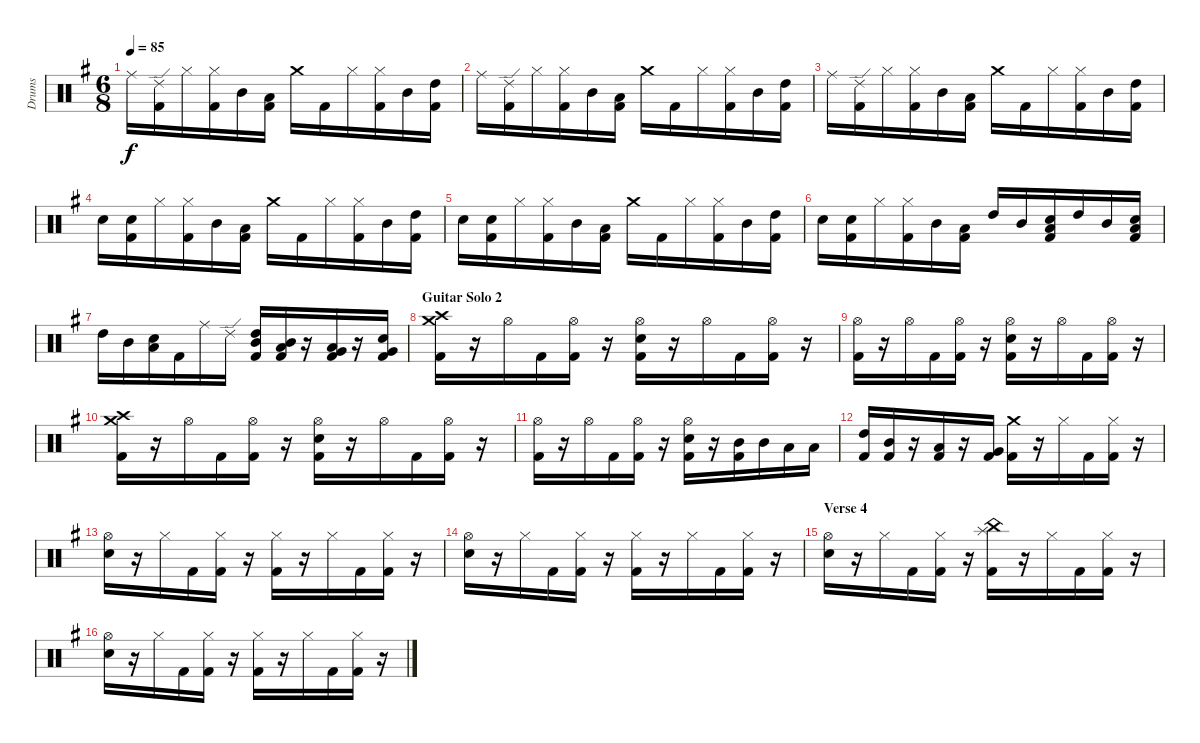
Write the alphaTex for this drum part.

\track ("Drums" "Drums") {instrument percussion}
\staff {score}
\articulation defaults
\ts (6 8)
\tempo 85
\clef neutral
\ks eminor "Ride (middle)".16{dy f}
("Ride (edge) 2" "Kick (hit) 2").16 "Hi-Hat (closed)".16 ("Hi-Hat (closed)" "Kick (hit) 2").16 "Mid Tom (hit)".16 ("Low Tom (hit)" "Kick (hit) 2").16 "Crash medium (hit)".16 "Kick (hit) 2".16 "Hi-Hat (closed)".16 ("Hi-Hat (closed)" "Kick (hit) 2").16 "Mid Tom (hit)".16 ("High Tom (hit)" "Kick (hit) 2").16 |
"Ride (middle)".16 ("Ride (edge) 2" "Kick (hit) 2").16 "Hi-Hat (closed)".16 ("Hi-Hat (closed)" "Kick (hit) 2").16 "Mid Tom (hit)".16 ("Low Tom (hit)" "Kick (hit) 2").16 "Crash medium (hit)".16 "Kick (hit) 2".16 "Hi-Hat (closed)".16 ("Hi-Hat (closed)" "Kick (hit) 2").16 "Mid Tom (hit)".16 ("High Tom (hit)" "Kick (hit) 2").16 |
"Ride (middle)".16 ("Ride (edge) 2" "Kick (hit) 2").16 "Hi-Hat (closed)".16 ("Hi-Hat (closed)" "Kick (hit) 2").16 "Mid Tom (hit)".16 ("Low Tom (hit)" "Kick (hit) 2").16 "Crash medium (hit)".16 "Kick (hit) 2".16 "Hi-Hat (closed)".16 ("Hi-Hat (closed)" "Kick (hit) 2").16 "Mid Tom (hit)".16 ("High Tom (hit)" "Kick (hit) 2").16 |
"Electric Snare (hit)".16 ("Electric Snare (hit)" "Kick (hit) 2").16 "Hi-Hat (closed)".16 ("Hi-Hat (closed)" "Kick (hit) 2").16 "Mid Tom (hit)".16 ("Low Tom (hit)" "Kick (hit) 2").16 "Crash medium (hit)".16 "Kick (hit) 2".16 "Hi-Hat (closed)".16 ("Hi-Hat (closed)" "Kick (hit) 2").16 "Mid Tom (hit)".16 ("High Tom (hit)" "Kick (hit) 2").16 |
"Electric Snare (hit)".16 ("Electric Snare (hit)" "Kick (hit) 2").16 "Hi-Hat (closed)".16 ("Hi-Hat (closed)" "Kick (hit) 2").16 "Mid Tom (hit)".16 ("Low Tom (hit)" "Kick (hit) 2").16 "Crash medium (hit)".16 "Kick (hit) 2".16 "Hi-Hat (closed)".16 ("Hi-Hat (closed)" "Kick (hit) 2").16 "Mid Tom (hit)".16 ("High Tom (hit)" "Kick (hit) 2").16 |
"Electric Snare (hit)".16 ("Electric Snare (hit)" "Kick (hit) 2").16 "Hi-Hat (closed)".16 ("Hi-Hat (closed)" "Kick (hit) 2").16 "Mid Tom (hit)".16 ("Low Tom (hit)" "Kick (hit) 2").16 "High Tom (hit)".16 "Mid Tom (hit)".16 ("Electric Snare (hit)" "Low Tom (hit)" "Kick (hit) 2").16 "High Tom (hit)".16 "Mid Tom (hit)".16 ("Electric Snare (hit)" "Low Tom (hit)" "Kick (hit) 2").16 |
"High Tom (hit)".16 "Mid Tom (hit)".16 ("Electric Snare (hit)" "Low Tom (hit)").16 "Kick (hit) 2".16 "Ride (middle)".16 "Ride (edge) 2".16 ("High Tom (hit)" "Mid Tom (hit)" "Kick (hit) 2").16 ("Mid Tom (hit)" "Low Tom (hit)" "Kick (hit) 2").16 r.16 ("Low Tom (hit)" "Very Low Tom (hit)" "Kick (hit) 2").16 r.16 ("Electric Snare (hit)" "Very Low Tom (hit)" "Kick (hit) 2").16 |
\section ("" "Guitar Solo 2")
("Crash medium (hit)" "Crash high (hit)" "Kick (hit) 2").16 r.16 "Hi-Hat (open)".16 "Kick (hit) 2".16 ("Hi-Hat (open)" "Kick (hit) 2").16 r.16 ("Hi-Hat (open)" "Electric Snare (hit)" "Kick (hit) 2").16 r.16 "Hi-Hat (open)".16 "Kick (hit) 2".16 ("Hi-Hat (open)" "Kick (hit) 2").16 r.16 |
("Hi-Hat (open)" "Kick (hit) 2").16 r.16 "Hi-Hat (open)".16 "Kick (hit) 2".16 ("Hi-Hat (open)" "Kick (hit) 2").16 r.16 ("Hi-Hat (open)" "Electric Snare (hit)" "Kick (hit) 2").16 r.16 "Hi-Hat (open)".16 "Kick (hit) 2".16 ("Hi-Hat (open)" "Kick (hit) 2").16 r.16 |
("Crash medium (hit)" "Crash high (hit)" "Kick (hit) 2").16 r.16 "Hi-Hat (open)".16 "Kick (hit) 2".16 ("Hi-Hat (open)" "Kick (hit) 2").16 r.16 ("Hi-Hat (open)" "Electric Snare (hit)" "Kick (hit) 2").16 r.16 "Hi-Hat (open)".16 "Kick (hit) 2".16 ("Hi-Hat (open)" "Kick (hit) 2").16 r.16 |
("Hi-Hat (open)" "Kick (hit) 2").16 r.16 "Hi-Hat (open)".16 "Kick (hit) 2".16 ("Hi-Hat (open)" "Kick (hit) 2").16 r.16 ("Hi-Hat (open)" "Electric Snare (hit)" "Kick (hit) 2").16 r.16 ("Mid Tom (hit)" "Kick (hit) 2").16 "Mid Tom (hit)".16 "Low Tom (hit)".16 "Low Tom (hit)".16 |
("High Tom (hit)" "Kick (hit) 2").16 ("Mid Tom (hit)" "Kick (hit) 2").16 r.16 ("Low Tom (hit)" "Kick (hit) 2").16 r.16 ("Very Low Tom (hit)" "Kick (hit) 2").16 ("Crash medium (hit)" "Kick (hit) 2").16 r.16 "Hi-Hat (closed)".16 "Kick (hit) 2".16 ("Hi-Hat (closed)" "Kick (hit) 2").16 r.16 |
("Hi-Hat (open)" "Electric Snare (hit)").16 r.16 "Hi-Hat (closed)".16 "Kick (hit) 2".16 ("Hi-Hat (closed)" "Kick (hit) 2").16 r.16 ("Hi-Hat (closed)" "Kick (hit) 2").16 r.16 "Hi-Hat (closed)".16 "Kick (hit) 2".16 ("Hi-Hat (closed)" "Kick (hit) 2").16 r.16 |
("Hi-Hat (open)" "Electric Snare (hit)").16 r.16 "Hi-Hat (closed)".16 "Kick (hit) 2".16 ("Hi-Hat (closed)" "Kick (hit) 2").16 r.16 ("Hi-Hat (closed)" "Kick (hit) 2").16 r.16 "Hi-Hat (closed)".16 "Kick (hit) 2".16 ("Hi-Hat (closed)" "Kick (hit) 2").16 r.16 |
\section ("" "Verse 4")
("Hi-Hat (open)" "Electric Snare (hit)").16 r.16 "Hi-Hat (closed)".16 "Kick (hit) 2".16 ("Hi-Hat (closed)" "Kick (hit) 2").16 r.16 ("Splash (hit)" "China (hit)" "Kick (hit) 2").16 r.16 "Hi-Hat (closed)".16 "Kick (hit) 2".16 ("Hi-Hat (closed)" "Kick (hit) 2").16 r.16 |
("Hi-Hat (open)" "Electric Snare (hit)").16 r.16 "Hi-Hat (closed)".16 "Kick (hit) 2".16 ("Hi-Hat (closed)" "Kick (hit) 2").16 r.16 ("Hi-Hat (closed)" "Kick (hit) 2").16 r.16 "Hi-Hat (closed)".16 "Kick (hit) 2".16 ("Hi-Hat (closed)" "Kick (hit) 2").16 r.16
